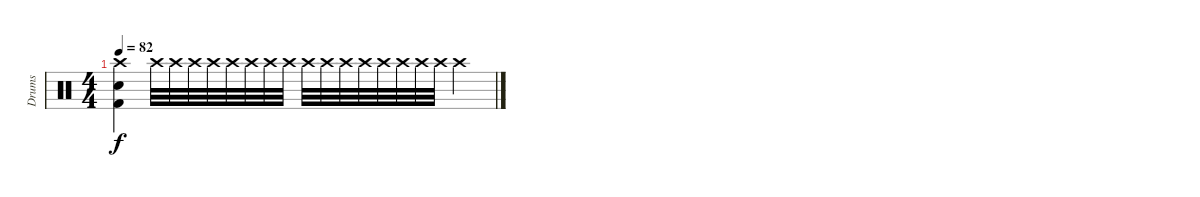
\track ("Drums" "Drums") {instrument percussion}
\staff {score}
\articulation defaults
\ts (4 4)
\tempo 82
\clef neutral
\ks c
("Crash high (hit)" "Snare (hit) 2" "Kick (hit) 2").4{dy f} "Crash high (hit)".32 "Crash high (hit)".32 "Crash high (hit)".32 "Crash high (hit)".32 "Crash high (hit)".32 "Crash high (hit)".32 "Crash high (hit)".32 "Crash high (hit)".32 "Crash high (hit)".32 "Crash high (hit)".32 "Crash high (hit)".32 "Crash high (hit)".32 "Crash high (hit)".32 "Crash high (hit)".32 "Crash high (hit)".32 "Crash high (hit)".32 "Crash high (hit)".4
